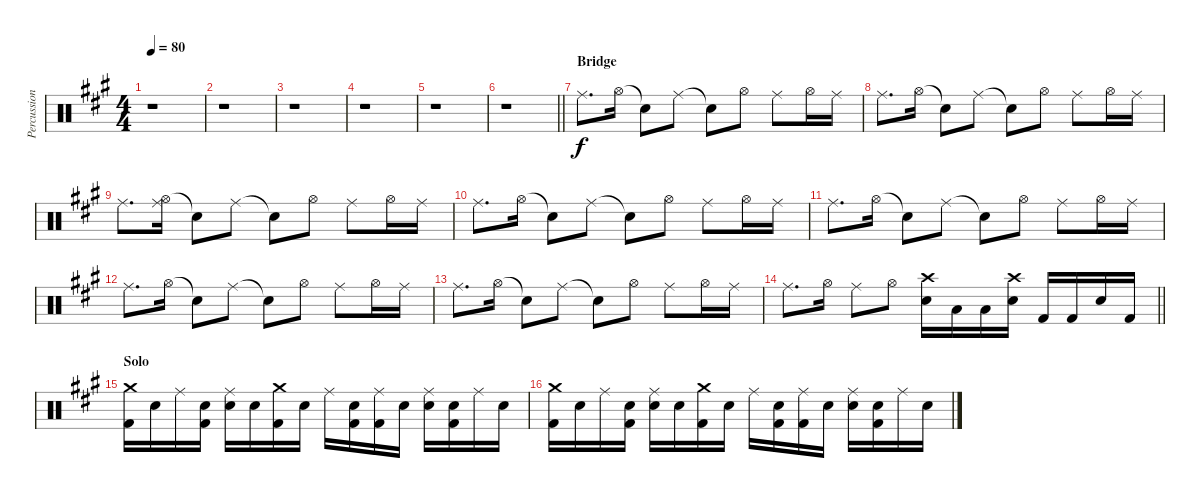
\track ("Percussion" "Percussion") {instrument percussion}
\staff {score}
\articulation defaults
\ts (4 4)
\tempo 80
\clef neutral
\ks a
r.1{dy f} |
r.1 |
r.1 |
r.1 |
r.1 |
\barLineRight lightlight
r.1 |
\section ("" "Bridge")
"Ride (middle)".8{d volume 6} "Hi-Hat (open)".16 "Snare (hit)"{t}.8 "Ride (middle)".8 "Snare (hit)"{t}.8 "Hi-Hat (open)".8 "Ride (middle)".8 "Hi-Hat (open)".16 "Ride (middle)".16 |
"Ride (middle)".8{d} "Hi-Hat (open)".16 "Snare (hit)"{t}.8 "Ride (middle)".8 "Snare (hit)"{t}.8 "Hi-Hat (open)".8 "Ride (middle)".8 "Hi-Hat (open)".16 "Ride (middle)".16 |
"Ride (middle)".8{d} ("Hi-Hat (open)" "Ride (middle)").16 "Snare (hit)"{t}.8 "Ride (middle)".8 "Snare (hit)"{t}.8 "Hi-Hat (open)".8 "Ride (middle)".8 "Hi-Hat (open)".16 "Ride (middle)".16 |
"Ride (middle)".8{d} "Hi-Hat (open)".16 "Snare (hit)"{t}.8 "Ride (middle)".8 "Snare (hit)"{t}.8 "Hi-Hat (open)".8 "Ride (middle)".8 "Hi-Hat (open)".16 "Ride (middle)".16 |
"Ride (middle)".8{d} "Hi-Hat (open)".16 "Snare (hit)"{t}.8 "Ride (middle)".8 "Snare (hit)"{t}.8 "Hi-Hat (open)".8 "Ride (middle)".8 "Hi-Hat (open)".16 "Ride (middle)".16 |
"Ride (middle)".8{d} "Hi-Hat (open)".16 "Snare (hit)"{t}.8 "Ride (middle)".8 "Snare (hit)"{t}.8 "Hi-Hat (open)".8 "Ride (middle)".8 "Hi-Hat (open)".16 "Ride (middle)".16 |
"Ride (middle)".8{d} "Hi-Hat (open)".16 "Snare (hit)"{t}.8 "Ride (middle)".8 "Snare (hit)"{t}.8 "Hi-Hat (open)".8 "Ride (middle)".8 "Hi-Hat (open)".16 "Ride (middle)".16 |
\barLineRight lightlight "Ride (middle)".8{d} "Hi-Hat (open)".16 "Ride (middle)".8 "Hi-Hat (open)".8
("Crash high (hit)" "Snare (hit) 2").16{volume 10} "Low Tom (hit)".16{volume 16} "Low Tom (hit)".16 ("Crash high (hit)" "Electric Snare (hit)").16 "Kick (hit) 2".16 "Kick (hit) 2".16 "Electric Snare (hit)".16 "Kick (hit) 2".16 |
\section ("" "Solo")
("Crash medium (hit)" "Kick (hit) 2").16{volume 13} "Snare (hit)".16 "Ride (middle)".16 ("Snare (hit)" "Kick (hit) 2").16 ("Ride (middle)" "Snare (hit) 2").16 "Snare (hit)".16 ("Crash medium (hit)" "Kick (hit) 2").16 "Snare (hit)".16 "Ride (middle)".16 ("Snare (hit)" "Kick (hit) 2").16 ("Ride (middle)" "Kick (hit) 2").16 "Snare (hit)".16 ("Ride (middle)" "Snare (hit) 2").16 ("Snare (hit)" "Kick (hit) 2").16 "Ride (middle)".16 "Snare (hit)".16 |
("Crash medium (hit)" "Kick (hit) 2").16 "Snare (hit)".16 "Ride (middle)".16 ("Snare (hit)" "Kick (hit) 2").16 ("Ride (middle)" "Snare (hit) 2").16 "Snare (hit)".16 ("Crash medium (hit)" "Kick (hit) 2").16 "Snare (hit)".16 "Ride (middle)".16 ("Snare (hit)" "Kick (hit) 2").16 ("Ride (middle)" "Kick (hit) 2").16 "Snare (hit)".16 ("Ride (middle)" "Snare (hit) 2").16 ("Snare (hit)" "Kick (hit) 2").16 "Ride (middle)".16 "Snare (hit)".16
